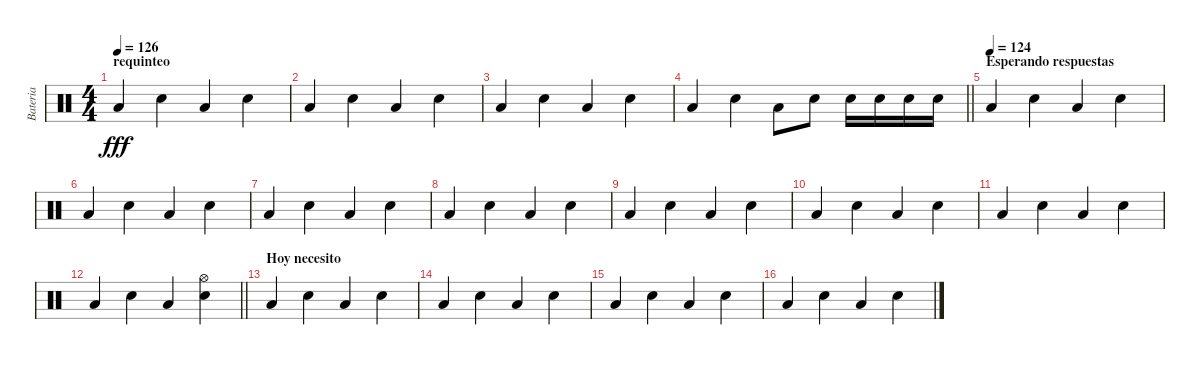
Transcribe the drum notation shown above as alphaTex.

\track ("Bateria" "Bateria") {instrument percussion}
\staff {score}
\articulation defaults
\ts (4 4)
\section ("" "requinteo")
\tempo 126
\clef neutral
\ks c "Low Floor Tom (hit)".4{dy fff} "Snare (hit) 2".4 "Low Floor Tom (hit)".4 "Snare (hit) 2".4
|
"Low Floor Tom (hit)".4 "Snare (hit) 2".4 "Low Floor Tom (hit)".4 "Snare (hit) 2".4 |
"Low Floor Tom (hit)".4 "Snare (hit) 2".4 "Low Floor Tom (hit)".4 "Snare (hit) 2".4 |
\barLineRight lightlight "Low Floor Tom (hit)".4 "Snare (hit) 2".4 "Low Floor Tom (hit)".8 "Snare (hit) 2".8 "Snare (hit) 2".16 "Snare (hit) 2".16 "Snare (hit) 2".16 "Snare (hit) 2".16
|
\section ("" "Esperando respuestas")
\tempo (124)
"Low Floor Tom (hit)".4 "Snare (hit) 2".4 "Low Floor Tom (hit)".4 "Snare (hit) 2".4 |
"Low Floor Tom (hit)".4 "Snare (hit) 2".4 "Low Floor Tom (hit)".4 "Snare (hit) 2".4 |
"Low Floor Tom (hit)".4 "Snare (hit) 2".4 "Low Floor Tom (hit)".4 "Snare (hit) 2".4 |
"Low Floor Tom (hit)".4 "Snare (hit) 2".4 "Low Floor Tom (hit)".4 "Snare (hit) 2".4 |
"Low Floor Tom (hit)".4 "Snare (hit) 2".4 "Low Floor Tom (hit)".4 "Snare (hit) 2".4 |
"Low Floor Tom (hit)".4 "Snare (hit) 2".4 "Low Floor Tom (hit)".4 "Snare (hit) 2".4 |
"Low Floor Tom (hit)".4 "Snare (hit) 2".4 "Low Floor Tom (hit)".4 "Snare (hit) 2".4 |
\barLineRight lightlight "Low Floor Tom (hit)".4 "Snare (hit) 2".4 "Low Floor Tom (hit)".4
("Hi-Hat (open)" "Snare (hit) 2").4 |
\section ("" "Hoy necesito")
"Low Floor Tom (hit)".4 "Snare (hit) 2".4 "Low Floor Tom (hit)".4 "Snare (hit) 2".4 |
"Low Floor Tom (hit)".4 "Snare (hit) 2".4 "Low Floor Tom (hit)".4 "Snare (hit) 2".4 |
"Low Floor Tom (hit)".4 "Snare (hit) 2".4 "Low Floor Tom (hit)".4 "Snare (hit) 2".4 |
"Low Floor Tom (hit)".4 "Snare (hit) 2".4 "Low Floor Tom (hit)".4 "Snare (hit) 2".4
